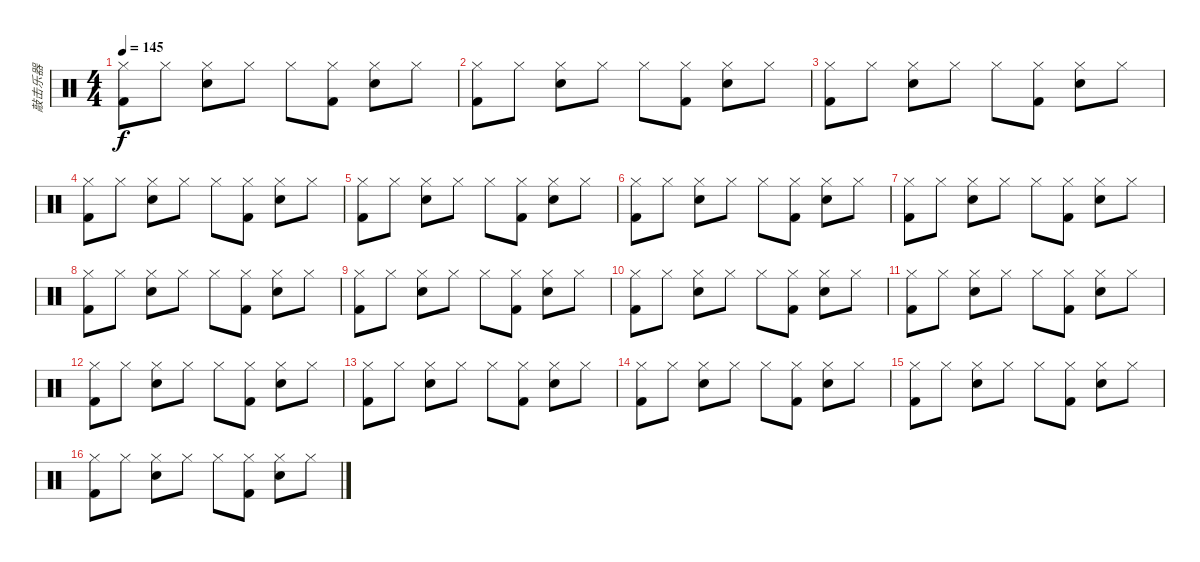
\track ("敲击乐器" "敲击乐器") {instrument percussion}
\staff {score}
\articulation defaults
\ts (4 4)
\tempo 145
\clef neutral
\ks c
("Hi-Hat (closed)" "Kick (hit) 2").8{dy f} "Hi-Hat (closed)".8 ("Hi-Hat (closed)" "Snare (hit) 2").8 "Hi-Hat (closed)".8 "Hi-Hat (closed)".8 ("Hi-Hat (closed)" "Kick (hit) 2").8 ("Hi-Hat (closed)" "Snare (hit) 2").8 "Hi-Hat (closed)".8 |
("Hi-Hat (closed)" "Kick (hit) 2").8 "Hi-Hat (closed)".8 ("Hi-Hat (closed)" "Snare (hit) 2").8 "Hi-Hat (closed)".8 "Hi-Hat (closed)".8 ("Hi-Hat (closed)" "Kick (hit) 2").8 ("Hi-Hat (closed)" "Snare (hit) 2").8 "Hi-Hat (closed)".8 |
("Hi-Hat (closed)" "Kick (hit) 2").8 "Hi-Hat (closed)".8 ("Hi-Hat (closed)" "Snare (hit) 2").8 "Hi-Hat (closed)".8 "Hi-Hat (closed)".8 ("Hi-Hat (closed)" "Kick (hit) 2").8 ("Hi-Hat (closed)" "Snare (hit) 2").8 "Hi-Hat (closed)".8 |
("Hi-Hat (closed)" "Kick (hit) 2").8 "Hi-Hat (closed)".8 ("Hi-Hat (closed)" "Snare (hit) 2").8 "Hi-Hat (closed)".8 "Hi-Hat (closed)".8 ("Hi-Hat (closed)" "Kick (hit) 2").8 ("Hi-Hat (closed)" "Snare (hit) 2").8 "Hi-Hat (closed)".8 |
("Hi-Hat (closed)" "Kick (hit) 2").8 "Hi-Hat (closed)".8 ("Hi-Hat (closed)" "Snare (hit) 2").8 "Hi-Hat (closed)".8 "Hi-Hat (closed)".8 ("Hi-Hat (closed)" "Kick (hit) 2").8 ("Hi-Hat (closed)" "Snare (hit) 2").8 "Hi-Hat (closed)".8 |
("Hi-Hat (closed)" "Kick (hit) 2").8 "Hi-Hat (closed)".8 ("Hi-Hat (closed)" "Snare (hit) 2").8 "Hi-Hat (closed)".8 "Hi-Hat (closed)".8 ("Hi-Hat (closed)" "Kick (hit) 2").8 ("Hi-Hat (closed)" "Snare (hit) 2").8 "Hi-Hat (closed)".8 |
("Hi-Hat (closed)" "Kick (hit) 2").8 "Hi-Hat (closed)".8 ("Hi-Hat (closed)" "Snare (hit) 2").8 "Hi-Hat (closed)".8 "Hi-Hat (closed)".8 ("Hi-Hat (closed)" "Kick (hit) 2").8 ("Hi-Hat (closed)" "Snare (hit) 2").8 "Hi-Hat (closed)".8 |
("Hi-Hat (closed)" "Kick (hit) 2").8 "Hi-Hat (closed)".8 ("Hi-Hat (closed)" "Snare (hit) 2").8 "Hi-Hat (closed)".8 "Hi-Hat (closed)".8 ("Hi-Hat (closed)" "Kick (hit) 2").8 ("Hi-Hat (closed)" "Snare (hit) 2").8 "Hi-Hat (closed)".8 |
("Hi-Hat (closed)" "Kick (hit) 2").8 "Hi-Hat (closed)".8 ("Hi-Hat (closed)" "Snare (hit) 2").8 "Hi-Hat (closed)".8 "Hi-Hat (closed)".8 ("Hi-Hat (closed)" "Kick (hit) 2").8 ("Hi-Hat (closed)" "Snare (hit) 2").8 "Hi-Hat (closed)".8 |
("Hi-Hat (closed)" "Kick (hit) 2").8 "Hi-Hat (closed)".8 ("Hi-Hat (closed)" "Snare (hit) 2").8 "Hi-Hat (closed)".8 "Hi-Hat (closed)".8 ("Hi-Hat (closed)" "Kick (hit) 2").8 ("Hi-Hat (closed)" "Snare (hit) 2").8 "Hi-Hat (closed)".8 |
("Hi-Hat (closed)" "Kick (hit) 2").8 "Hi-Hat (closed)".8 ("Hi-Hat (closed)" "Snare (hit) 2").8 "Hi-Hat (closed)".8 "Hi-Hat (closed)".8 ("Hi-Hat (closed)" "Kick (hit) 2").8 ("Hi-Hat (closed)" "Snare (hit) 2").8 "Hi-Hat (closed)".8 |
("Hi-Hat (closed)" "Kick (hit) 2").8 "Hi-Hat (closed)".8 ("Hi-Hat (closed)" "Snare (hit) 2").8 "Hi-Hat (closed)".8 "Hi-Hat (closed)".8 ("Hi-Hat (closed)" "Kick (hit) 2").8 ("Hi-Hat (closed)" "Snare (hit) 2").8 "Hi-Hat (closed)".8 |
("Hi-Hat (closed)" "Kick (hit) 2").8 "Hi-Hat (closed)".8 ("Hi-Hat (closed)" "Snare (hit) 2").8 "Hi-Hat (closed)".8 "Hi-Hat (closed)".8 ("Hi-Hat (closed)" "Kick (hit) 2").8 ("Hi-Hat (closed)" "Snare (hit) 2").8 "Hi-Hat (closed)".8 |
("Hi-Hat (closed)" "Kick (hit) 2").8 "Hi-Hat (closed)".8 ("Hi-Hat (closed)" "Snare (hit) 2").8 "Hi-Hat (closed)".8 "Hi-Hat (closed)".8 ("Hi-Hat (closed)" "Kick (hit) 2").8 ("Hi-Hat (closed)" "Snare (hit) 2").8 "Hi-Hat (closed)".8 |
("Hi-Hat (closed)" "Kick (hit) 2").8 "Hi-Hat (closed)".8 ("Hi-Hat (closed)" "Snare (hit) 2").8 "Hi-Hat (closed)".8 "Hi-Hat (closed)".8 ("Hi-Hat (closed)" "Kick (hit) 2").8 ("Hi-Hat (closed)" "Snare (hit) 2").8 "Hi-Hat (closed)".8 |
("Hi-Hat (closed)" "Kick (hit) 2").8 "Hi-Hat (closed)".8 ("Hi-Hat (closed)" "Snare (hit) 2").8 "Hi-Hat (closed)".8 "Hi-Hat (closed)".8 ("Hi-Hat (closed)" "Kick (hit) 2").8 ("Hi-Hat (closed)" "Snare (hit) 2").8 "Hi-Hat (closed)".8
